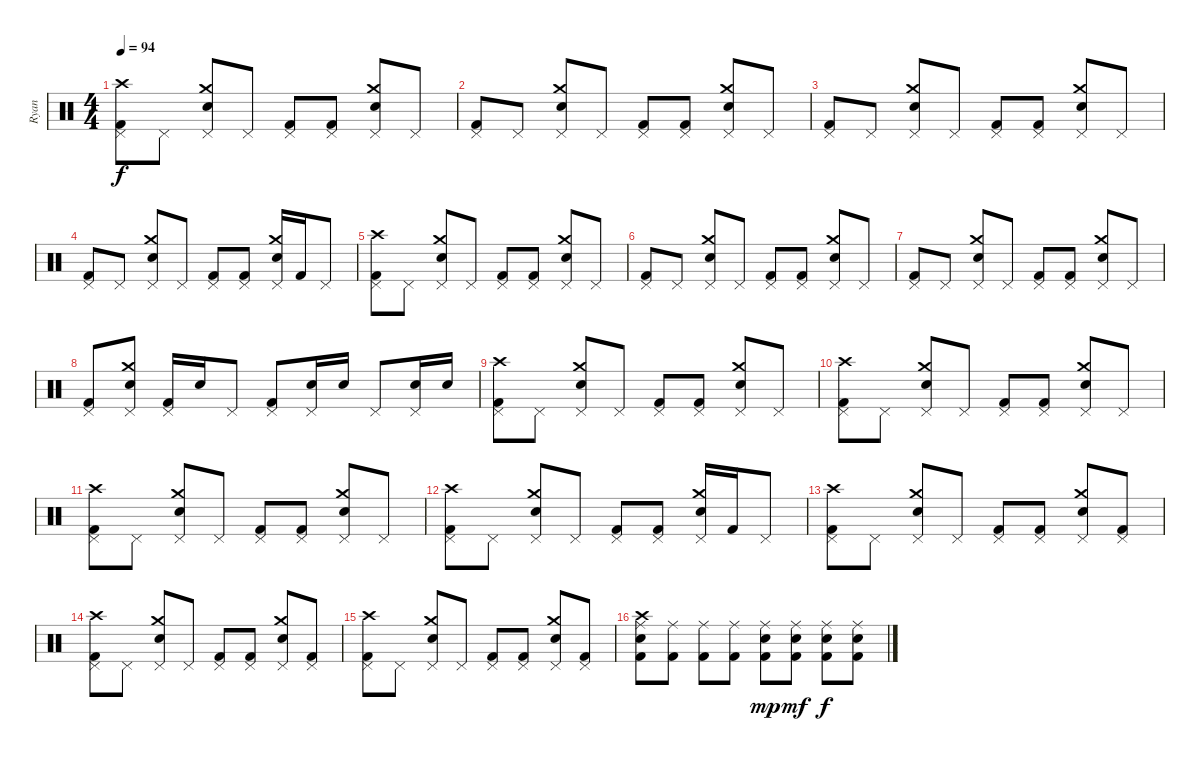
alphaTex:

\track ("Ryan" "Ryan") {instrument percussion}
\staff {score}
\articulation defaults
\ts (4 4)
\tempo 94
\clef neutral
\ks c
("Crash high (hit)" "Pedal Hi-Hat (hit)" "Kick (hit) 2").8{dy f} "Pedal Hi-Hat (hit)".8 ("Crash medium (hit)" "Pedal Hi-Hat (hit)" "Electric Snare (hit)").8 "Pedal Hi-Hat (hit)".8 ("Pedal Hi-Hat (hit)" "Kick (hit) 2").8 ("Pedal Hi-Hat (hit)" "Kick (hit) 2").8 ("Crash medium (hit)" "Pedal Hi-Hat (hit)" "Electric Snare (hit)").8 "Pedal Hi-Hat (hit)".8 |
("Pedal Hi-Hat (hit)" "Kick (hit) 2").8 "Pedal Hi-Hat (hit)".8 ("Crash medium (hit)" "Pedal Hi-Hat (hit)" "Electric Snare (hit)").8 "Pedal Hi-Hat (hit)".8 ("Pedal Hi-Hat (hit)" "Kick (hit) 2").8 ("Pedal Hi-Hat (hit)" "Kick (hit) 2").8 ("Crash medium (hit)" "Pedal Hi-Hat (hit)" "Electric Snare (hit)").8 "Pedal Hi-Hat (hit)".8 |
("Pedal Hi-Hat (hit)" "Kick (hit) 2").8 "Pedal Hi-Hat (hit)".8 ("Crash medium (hit)" "Pedal Hi-Hat (hit)" "Electric Snare (hit)").8 "Pedal Hi-Hat (hit)".8 ("Pedal Hi-Hat (hit)" "Kick (hit) 2").8 ("Pedal Hi-Hat (hit)" "Kick (hit) 2").8 ("Crash medium (hit)" "Pedal Hi-Hat (hit)" "Electric Snare (hit)").8 "Pedal Hi-Hat (hit)".8 |
("Pedal Hi-Hat (hit)" "Kick (hit) 2").8 "Pedal Hi-Hat (hit)".8 ("Crash medium (hit)" "Pedal Hi-Hat (hit)" "Electric Snare (hit)").8 "Pedal Hi-Hat (hit)".8 ("Pedal Hi-Hat (hit)" "Kick (hit) 2").8 ("Pedal Hi-Hat (hit)" "Kick (hit) 2").8 ("Crash medium (hit)" "Pedal Hi-Hat (hit)" "Electric Snare (hit)").16 "Kick (hit) 2".16 "Pedal Hi-Hat (hit)".8 |
("Crash high (hit)" "Pedal Hi-Hat (hit)" "Kick (hit) 2").8 "Pedal Hi-Hat (hit)".8 ("Crash medium (hit)" "Pedal Hi-Hat (hit)" "Electric Snare (hit)").8 "Pedal Hi-Hat (hit)".8 ("Pedal Hi-Hat (hit)" "Kick (hit) 2").8 ("Pedal Hi-Hat (hit)" "Kick (hit) 2").8 ("Crash medium (hit)" "Pedal Hi-Hat (hit)" "Electric Snare (hit)").8 "Pedal Hi-Hat (hit)".8 |
("Pedal Hi-Hat (hit)" "Kick (hit) 2").8 "Pedal Hi-Hat (hit)".8 ("Crash medium (hit)" "Pedal Hi-Hat (hit)" "Electric Snare (hit)").8 "Pedal Hi-Hat (hit)".8 ("Pedal Hi-Hat (hit)" "Kick (hit) 2").8 ("Pedal Hi-Hat (hit)" "Kick (hit) 2").8 ("Crash medium (hit)" "Pedal Hi-Hat (hit)" "Electric Snare (hit)").8 "Pedal Hi-Hat (hit)".8 |
("Pedal Hi-Hat (hit)" "Kick (hit) 2").8 "Pedal Hi-Hat (hit)".8 ("Crash medium (hit)" "Pedal Hi-Hat (hit)" "Electric Snare (hit)").8 "Pedal Hi-Hat (hit)".8 ("Pedal Hi-Hat (hit)" "Kick (hit) 2").8 ("Pedal Hi-Hat (hit)" "Kick (hit) 2").8 ("Crash medium (hit)" "Pedal Hi-Hat (hit)" "Electric Snare (hit)").8 "Pedal Hi-Hat (hit)".8 |
("Pedal Hi-Hat (hit)" "Kick (hit) 2").8 ("Crash medium (hit)" "Pedal Hi-Hat (hit)" "Electric Snare (hit)").8 ("Pedal Hi-Hat (hit)" "Kick (hit) 2").16 "Electric Snare (hit)".16 "Pedal Hi-Hat (hit)".8 ("Pedal Hi-Hat (hit)" "Kick (hit) 2").8 ("Pedal Hi-Hat (hit)" "Electric Snare (hit)").16 "Electric Snare (hit)".16 "Pedal Hi-Hat (hit)".8 ("Pedal Hi-Hat (hit)" "Electric Snare (hit)").16 "Electric Snare (hit)".16 |
("Crash high (hit)" "Pedal Hi-Hat (hit)" "Kick (hit) 2").8 "Pedal Hi-Hat (hit)".8 ("Crash medium (hit)" "Pedal Hi-Hat (hit)" "Electric Snare (hit)").8 "Pedal Hi-Hat (hit)".8 ("Pedal Hi-Hat (hit)" "Kick (hit) 2").8 ("Pedal Hi-Hat (hit)" "Kick (hit) 2").8 ("Crash medium (hit)" "Pedal Hi-Hat (hit)" "Electric Snare (hit)").8 "Pedal Hi-Hat (hit)".8 |
("Crash high (hit)" "Pedal Hi-Hat (hit)" "Kick (hit) 2").8 "Pedal Hi-Hat (hit)".8 ("Crash medium (hit)" "Pedal Hi-Hat (hit)" "Electric Snare (hit)").8 "Pedal Hi-Hat (hit)".8 ("Pedal Hi-Hat (hit)" "Kick (hit) 2").8 ("Pedal Hi-Hat (hit)" "Kick (hit) 2").8 ("Crash medium (hit)" "Pedal Hi-Hat (hit)" "Electric Snare (hit)").8 "Pedal Hi-Hat (hit)".8 |
("Crash high (hit)" "Pedal Hi-Hat (hit)" "Kick (hit) 2").8 "Pedal Hi-Hat (hit)".8 ("Crash medium (hit)" "Pedal Hi-Hat (hit)" "Electric Snare (hit)").8 "Pedal Hi-Hat (hit)".8 ("Pedal Hi-Hat (hit)" "Kick (hit) 2").8 ("Pedal Hi-Hat (hit)" "Kick (hit) 2").8 ("Crash medium (hit)" "Pedal Hi-Hat (hit)" "Electric Snare (hit)").8 "Pedal Hi-Hat (hit)".8 |
("Crash high (hit)" "Pedal Hi-Hat (hit)" "Kick (hit) 2").8 "Pedal Hi-Hat (hit)".8 ("Crash medium (hit)" "Pedal Hi-Hat (hit)" "Electric Snare (hit)").8 "Pedal Hi-Hat (hit)".8 ("Pedal Hi-Hat (hit)" "Kick (hit) 2").8 ("Pedal Hi-Hat (hit)" "Kick (hit) 2").8 ("Crash medium (hit)" "Pedal Hi-Hat (hit)" "Electric Snare (hit)").16 "Kick (hit) 2".16 "Pedal Hi-Hat (hit)".8 |
("Crash high (hit)" "Pedal Hi-Hat (hit)" "Kick (hit) 2").8 "Pedal Hi-Hat (hit)".8 ("Crash medium (hit)" "Pedal Hi-Hat (hit)" "Electric Snare (hit)").8 "Pedal Hi-Hat (hit)".8 ("Pedal Hi-Hat (hit)" "Kick (hit) 2").8 ("Pedal Hi-Hat (hit)" "Kick (hit) 2").8 ("Crash medium (hit)" "Pedal Hi-Hat (hit)" "Electric Snare (hit)").8 ("Pedal Hi-Hat (hit)" "Kick (hit) 2").8 |
("Crash high (hit)" "Pedal Hi-Hat (hit)" "Kick (hit) 2").8 "Pedal Hi-Hat (hit)".8 ("Crash medium (hit)" "Pedal Hi-Hat (hit)" "Electric Snare (hit)").8 "Pedal Hi-Hat (hit)".8 ("Pedal Hi-Hat (hit)" "Kick (hit) 2").8 ("Pedal Hi-Hat (hit)" "Kick (hit) 2").8 ("Crash medium (hit)" "Pedal Hi-Hat (hit)" "Electric Snare (hit)").8 ("Pedal Hi-Hat (hit)" "Kick (hit) 2").8 |
("Crash high (hit)" "Pedal Hi-Hat (hit)" "Kick (hit) 2").8 "Pedal Hi-Hat (hit)".8 ("Crash medium (hit)" "Pedal Hi-Hat (hit)" "Electric Snare (hit)").8 "Pedal Hi-Hat (hit)".8 ("Pedal Hi-Hat (hit)" "Kick (hit) 2").8 ("Pedal Hi-Hat (hit)" "Kick (hit) 2").8 ("Crash medium (hit)" "Pedal Hi-Hat (hit)" "Electric Snare (hit)").8 ("Pedal Hi-Hat (hit)" "Kick (hit) 2").8 |
("Crash high (hit)" "Ride (middle)" "Electric Snare (hit)" "Kick (hit) 2").8 ("Ride (middle)" "Kick (hit) 2").8 ("Ride (middle)" "Kick (hit) 2").8 ("Ride (middle)" "Kick (hit) 2").8 ("Ride (middle)" "Electric Snare (hit)" "Kick (hit) 2").8{dy mp} ("Ride (middle)" "Electric Snare (hit)" "Kick (hit) 2").8{dy mf} ("Ride (middle)" "Electric Snare (hit)" "Kick (hit) 2").8{dy f} ("Ride (middle)" "Electric Snare (hit)" "Kick (hit) 2").8
